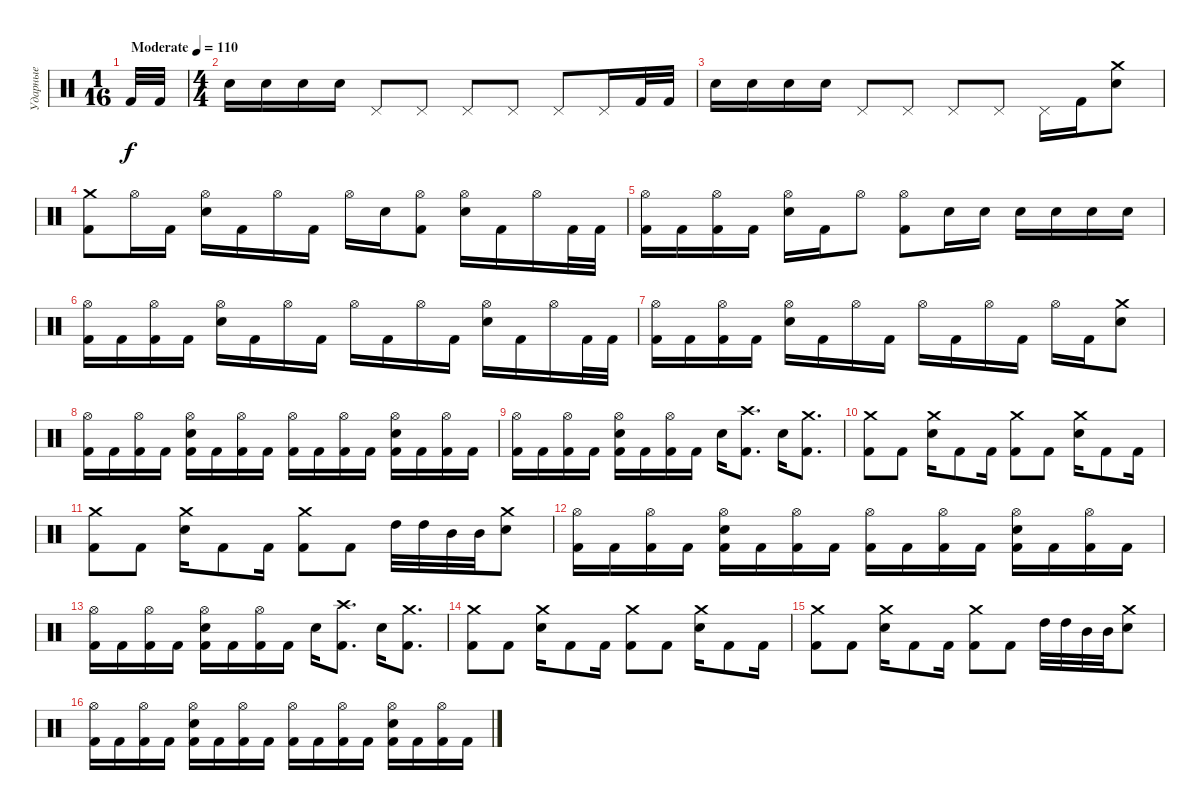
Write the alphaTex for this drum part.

\track ("Ударные" "Ударные") {instrument percussion}
\staff {score}
\articulation defaults
\ts (1 16)
\tempo (110 "Moderate")
\clef neutral
\ks c "Kick (hit) 2".32{dy f} "Kick (hit) 2".32
|
\ts (4 4)
"Electric Snare (hit)".16 "Electric Snare (hit)".16 "Electric Snare (hit)".16 "Electric Snare (hit)".16 "Pedal Hi-Hat (hit)".8 "Pedal Hi-Hat (hit)".8 "Pedal Hi-Hat (hit)".8 "Pedal Hi-Hat (hit)".8 "Pedal Hi-Hat (hit)".8 "Pedal Hi-Hat (hit)".16 "Kick (hit) 2".32 "Kick (hit) 2".32 |
"Electric Snare (hit)".16 "Electric Snare (hit)".16 "Electric Snare (hit)".16 "Electric Snare (hit)".16 "Pedal Hi-Hat (hit)".8 "Pedal Hi-Hat (hit)".8 "Pedal Hi-Hat (hit)".8 "Pedal Hi-Hat (hit)".8 "Pedal Hi-Hat (hit)".16 "Kick (hit) 2".16 ("Electric Snare (hit)" "Crash medium (hit)").8 |
("Kick (hit) 2" "Crash medium (hit)").8 "Hi-Hat (open)".16 "Kick (hit) 2".16 ("Electric Snare (hit)" "Hi-Hat (open)").16 "Kick (hit) 2".16 "Hi-Hat (open)".16 "Kick (hit) 2".16 "Hi-Hat (open)".16 "Electric Snare (hit)".16 ("Hi-Hat (open)" "Kick (hit) 2").8 ("Electric Snare (hit)" "Hi-Hat (open)").16 "Kick (hit) 2".16 "Hi-Hat (open)".16 "Kick (hit) 2".32 "Kick (hit) 2".32 |
("Kick (hit) 2" "Hi-Hat (open)").16 "Kick (hit) 2".16 ("Kick (hit) 2" "Hi-Hat (open)").16 "Kick (hit) 2".16 ("Electric Snare (hit)" "Hi-Hat (open)").16 "Kick (hit) 2".16 "Hi-Hat (open)".8 ("Kick (hit) 2" "Hi-Hat (open)").8 "Electric Snare (hit)".16 "Electric Snare (hit)".16 "Electric Snare (hit)".16 "Electric Snare (hit)".16 "Electric Snare (hit)".16 "Electric Snare (hit)".16 |
("Kick (hit) 2" "Hi-Hat (open)").16 "Kick (hit) 2".16 ("Kick (hit) 2" "Hi-Hat (open)").16 "Kick (hit) 2".16 ("Electric Snare (hit)" "Hi-Hat (open)").16 "Kick (hit) 2".16 "Hi-Hat (open)".16 "Kick (hit) 2".16 "Hi-Hat (open)".16 "Kick (hit) 2".16 "Hi-Hat (open)".16 "Kick (hit) 2".16 ("Electric Snare (hit)" "Hi-Hat (open)").16 "Kick (hit) 2".16 "Hi-Hat (open)".16 "Kick (hit) 2".32 "Kick (hit) 2".32 |
("Kick (hit) 2" "Hi-Hat (open)").16 "Kick (hit) 2".16 ("Kick (hit) 2" "Hi-Hat (open)").16 "Kick (hit) 2".16 ("Electric Snare (hit)" "Hi-Hat (open)").16 "Kick (hit) 2".16 "Hi-Hat (open)".16 "Kick (hit) 2".16 "Hi-Hat (open)".16 "Kick (hit) 2".16 "Hi-Hat (open)".16 "Kick (hit) 2".16 "Hi-Hat (open)".16 "Kick (hit) 2".16 ("Electric Snare (hit)" "Crash medium (hit)").8 |
("Kick (hit) 2" "Hi-Hat (open)").16 "Kick (hit) 2".16 ("Kick (hit) 2" "Hi-Hat (open)").16 "Kick (hit) 2".16 ("Kick (hit) 2" "Hi-Hat (open)" "Electric Snare (hit)").16 "Kick (hit) 2".16 ("Kick (hit) 2" "Hi-Hat (open)").16 "Kick (hit) 2".16 ("Kick (hit) 2" "Hi-Hat (open)").16 "Kick (hit) 2".16 ("Kick (hit) 2" "Hi-Hat (open)").16 "Kick (hit) 2".16 ("Kick (hit) 2" "Hi-Hat (open)" "Electric Snare (hit)").16 "Kick (hit) 2".16 ("Kick (hit) 2" "Hi-Hat (open)").16 "Kick (hit) 2".16 |
("Kick (hit) 2" "Hi-Hat (open)").16 "Kick (hit) 2".16 ("Kick (hit) 2" "Hi-Hat (open)").16 "Kick (hit) 2".16 ("Kick (hit) 2" "Hi-Hat (open)" "Electric Snare (hit)").16 "Kick (hit) 2".16 ("Kick (hit) 2" "Hi-Hat (open)").16 "Kick (hit) 2".16 "Electric Snare (hit)".16 ("Kick (hit) 2" "Crash high (hit)").8{d} "Electric Snare (hit)".16 ("Kick (hit) 2" "Crash medium (hit)").8{d} |
("Kick (hit) 2" "Crash medium (hit)").8 "Kick (hit) 2".8 ("Electric Snare (hit)" "Crash medium (hit)").16 "Kick (hit) 2".8 "Kick (hit) 2".16 ("Kick (hit) 2" "Crash medium (hit)").8 "Kick (hit) 2".8 ("Electric Snare (hit)" "Crash medium (hit)").16 "Kick (hit) 2".8 "Kick (hit) 2".16 |
("Kick (hit) 2" "Crash medium (hit)").8 "Kick (hit) 2".8 ("Electric Snare (hit)" "Crash medium (hit)").16 "Kick (hit) 2".8 "Kick (hit) 2".16 ("Kick (hit) 2" "Crash medium (hit)").8 "Kick (hit) 2".8 "High Tom (hit)".32 "High Tom (hit)".32 "Mid Tom (hit)".32 "Mid Tom (hit)".32 ("Electric Snare (hit)" "Crash medium (hit)").8 |
("Kick (hit) 2" "Hi-Hat (open)").16 "Kick (hit) 2".16 ("Kick (hit) 2" "Hi-Hat (open)").16 "Kick (hit) 2".16 ("Kick (hit) 2" "Hi-Hat (open)" "Electric Snare (hit)").16 "Kick (hit) 2".16 ("Kick (hit) 2" "Hi-Hat (open)").16 "Kick (hit) 2".16 ("Kick (hit) 2" "Hi-Hat (open)").16 "Kick (hit) 2".16 ("Kick (hit) 2" "Hi-Hat (open)").16 "Kick (hit) 2".16 ("Kick (hit) 2" "Hi-Hat (open)" "Electric Snare (hit)").16 "Kick (hit) 2".16 ("Kick (hit) 2" "Hi-Hat (open)").16 "Kick (hit) 2".16 |
("Kick (hit) 2" "Hi-Hat (open)").16 "Kick (hit) 2".16 ("Kick (hit) 2" "Hi-Hat (open)").16 "Kick (hit) 2".16 ("Kick (hit) 2" "Hi-Hat (open)" "Electric Snare (hit)").16 "Kick (hit) 2".16 ("Kick (hit) 2" "Hi-Hat (open)").16 "Kick (hit) 2".16 "Electric Snare (hit)".16 ("Kick (hit) 2" "Crash high (hit)").8{d} "Electric Snare (hit)".16 ("Kick (hit) 2" "Crash medium (hit)").8{d} |
("Kick (hit) 2" "Crash medium (hit)").8 "Kick (hit) 2".8 ("Electric Snare (hit)" "Crash medium (hit)").16 "Kick (hit) 2".8 "Kick (hit) 2".16 ("Kick (hit) 2" "Crash medium (hit)").8 "Kick (hit) 2".8 ("Electric Snare (hit)" "Crash medium (hit)").16 "Kick (hit) 2".8 "Kick (hit) 2".16 |
("Kick (hit) 2" "Crash medium (hit)").8 "Kick (hit) 2".8 ("Electric Snare (hit)" "Crash medium (hit)").16 "Kick (hit) 2".8 "Kick (hit) 2".16 ("Kick (hit) 2" "Crash medium (hit)").8 "Kick (hit) 2".8 "High Tom (hit)".32 "High Tom (hit)".32 "Mid Tom (hit)".32 "Mid Tom (hit)".32 ("Electric Snare (hit)" "Crash medium (hit)").8 |
("Kick (hit) 2" "Hi-Hat (open)").16 "Kick (hit) 2".16 ("Kick (hit) 2" "Hi-Hat (open)").16 "Kick (hit) 2".16 ("Kick (hit) 2" "Hi-Hat (open)" "Electric Snare (hit)").16 "Kick (hit) 2".16 ("Kick (hit) 2" "Hi-Hat (open)").16 "Kick (hit) 2".16 ("Kick (hit) 2" "Hi-Hat (open)").16 "Kick (hit) 2".16 ("Kick (hit) 2" "Hi-Hat (open)").16 "Kick (hit) 2".16 ("Kick (hit) 2" "Hi-Hat (open)" "Electric Snare (hit)").16 "Kick (hit) 2".16 ("Kick (hit) 2" "Hi-Hat (open)").16 "Kick (hit) 2".16
